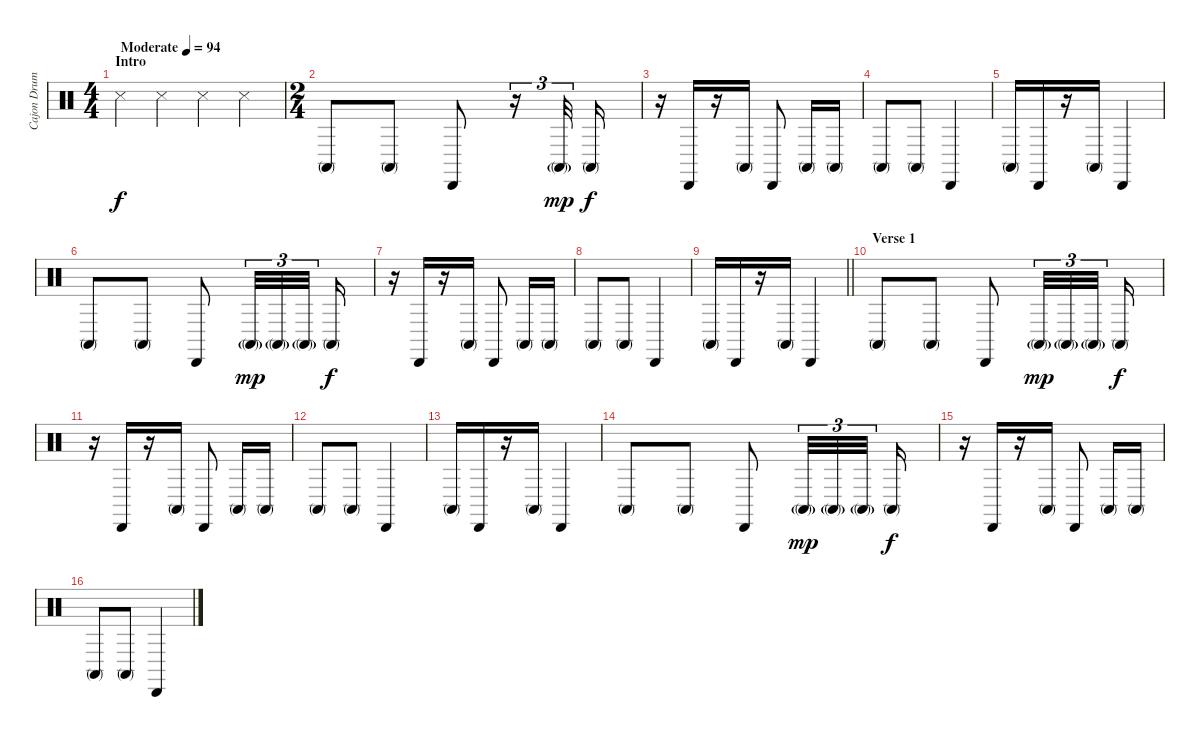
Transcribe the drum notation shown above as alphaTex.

\track ("Cajon Drum" "Cajon Drum") {instrument percussion}
\staff {score}
\articulation defaults
\ts (4 4)
\section ("" "Intro")
\tempo (94 "Moderate")
\clef neutral
\ks c "Snare (side stick) 3".4{dy f} "Snare (side stick) 3".4 "Snare (side stick) 3".4 "Snare (side stick) 3".4
|
\ts (2 4)
"Conga high (mute)".8 "Conga high (mute)".8 "Cabasa (hit)".8 r.16{tu (3 2)} "Conga high (mute)"{g}.32{tu (3 2) dy mp beam split} "Conga high (mute)".16{dy f} |
r.16 "Cabasa (hit)".16 r.16 "Conga high (mute)".16 "Cabasa (hit)".8{beam split} "Conga high (mute)".16 "Conga high (mute)".16 |
"Conga high (mute)".8 "Conga high (mute)".8 "Cabasa (hit)".4 |
"Conga high (mute)".16 "Cabasa (hit)".16 r.16 "Conga high (mute)".16 "Cabasa (hit)".4 |
"Conga high (mute)".8 "Conga high (mute)".8 "Cabasa (hit)".8{beam split} "Conga high (mute)"{g}.32{tu (3 2) dy mp} "Conga high (mute)"{g}.32{tu (3 2)} "Conga high (mute)"{g}.32{tu (3 2) beam split} "Conga high (mute)".16{dy f} |
r.16 "Cabasa (hit)".16 r.16 "Conga high (mute)".16 "Cabasa (hit)".8{beam split} "Conga high (mute)".16 "Conga high (mute)".16 |
"Conga high (mute)".8 "Conga high (mute)".8 "Cabasa (hit)".4 |
\barLineRight lightlight "Conga high (mute)".16 "Cabasa (hit)".16
r.16 "Conga high (mute)".16 "Cabasa (hit)".4 |
\section ("" "Verse 1")
"Conga high (mute)".8 "Conga high (mute)".8 "Cabasa (hit)".8{beam split} "Conga high (mute)"{g}.32{tu (3 2) dy mp} "Conga high (mute)"{g}.32{tu (3 2)} "Conga high (mute)"{g}.32{tu (3 2) beam split} "Conga high (mute)".16{dy f} |
r.16 "Cabasa (hit)".16 r.16 "Conga high (mute)".16 "Cabasa (hit)".8{beam split} "Conga high (mute)".16 "Conga high (mute)".16 |
"Conga high (mute)".8 "Conga high (mute)".8 "Cabasa (hit)".4 |
"Conga high (mute)".16 "Cabasa (hit)".16 r.16 "Conga high (mute)".16 "Cabasa (hit)".4 |
"Conga high (mute)".8 "Conga high (mute)".8 "Cabasa (hit)".8{beam split} "Conga high (mute)"{g}.32{tu (3 2) dy mp} "Conga high (mute)"{g}.32{tu (3 2)} "Conga high (mute)"{g}.32{tu (3 2) beam split} "Conga high (mute)".16{dy f} |
r.16 "Cabasa (hit)".16 r.16 "Conga high (mute)".16 "Cabasa (hit)".8{beam split} "Conga high (mute)".16 "Conga high (mute)".16 |
"Conga high (mute)".8 "Conga high (mute)".8 "Cabasa (hit)".4
